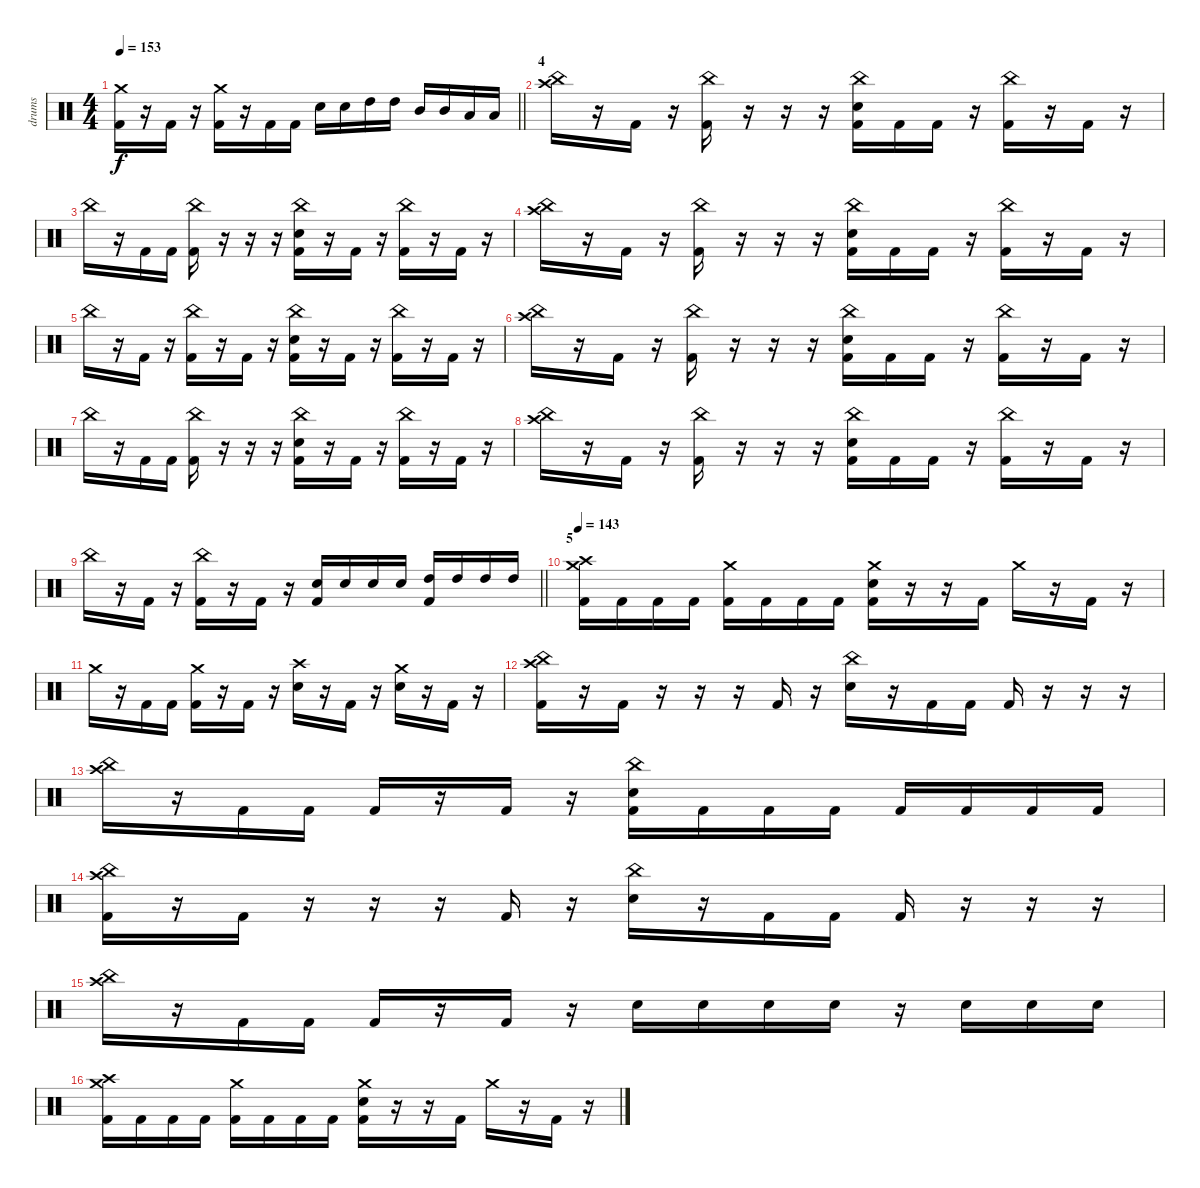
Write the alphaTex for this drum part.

\track ("drums" "drums") {instrument percussion}
\staff {score}
\articulation defaults
\ts (4 4)
\tempo 153
\clef neutral
\barLineRight lightlight
\ks c
("Crash medium (hit)" "Kick (hit) 2").16{dy f} r.16 "Kick (hit) 2".16 r.16 ("Crash medium (hit)" "Kick (hit) 2").16 r.16 "Kick (hit) 2".16 "Kick (hit) 2".16 "Electric Snare (hit)".16 "Electric Snare (hit)".16 "High Tom (hit)".16 "High Tom (hit)".16 "Mid Tom (hit)".16 "Mid Tom (hit)".16 "Low Floor Tom (hit)".16 "Low Floor Tom (hit)".16 |
\section ("" "4")
("China (hit)" "Crash high (hit)").16 r.16 "Kick (hit) 2".16 r.16 ("China (hit)" "Kick (hit) 2").16 r.16 r.16 r.16 ("China (hit)" "Electric Snare (hit)" "Kick (hit) 2").16 "Kick (hit) 2".16 "Kick (hit) 2".16 r.16 ("China (hit)" "Kick (hit) 2").16 r.16 "Kick (hit) 2".16 r.16 |
"China (hit)".16 r.16 "Kick (hit) 2".16 "Kick (hit) 2".16 ("China (hit)" "Kick (hit) 2").16 r.16 r.16 r.16 ("China (hit)" "Electric Snare (hit)" "Kick (hit) 2").16 r.16 "Kick (hit) 2".16 r.16 ("China (hit)" "Kick (hit) 2").16 r.16 "Kick (hit) 2".16 r.16 |
("China (hit)" "Crash high (hit)").16 r.16 "Kick (hit) 2".16 r.16 ("China (hit)" "Kick (hit) 2").16 r.16 r.16 r.16 ("China (hit)" "Electric Snare (hit)" "Kick (hit) 2").16 "Kick (hit) 2".16 "Kick (hit) 2".16 r.16 ("China (hit)" "Kick (hit) 2").16 r.16 "Kick (hit) 2".16 r.16 |
"China (hit)".16 r.16 "Kick (hit) 2".16 r.16 ("China (hit)" "Kick (hit) 2").16 r.16 "Kick (hit) 2".16 r.16 ("China (hit)" "Electric Snare (hit)" "Kick (hit) 2").16 r.16 "Kick (hit) 2".16 r.16 ("China (hit)" "Kick (hit) 2").16 r.16 "Kick (hit) 2".16 r.16 |
("China (hit)" "Crash high (hit)").16 r.16 "Kick (hit) 2".16 r.16 ("China (hit)" "Kick (hit) 2").16 r.16 r.16 r.16 ("China (hit)" "Electric Snare (hit)" "Kick (hit) 2").16 "Kick (hit) 2".16 "Kick (hit) 2".16 r.16 ("China (hit)" "Kick (hit) 2").16 r.16 "Kick (hit) 2".16 r.16 |
"China (hit)".16 r.16 "Kick (hit) 2".16 "Kick (hit) 2".16 ("China (hit)" "Kick (hit) 2").16 r.16 r.16 r.16 ("China (hit)" "Electric Snare (hit)" "Kick (hit) 2").16 r.16 "Kick (hit) 2".16 r.16 ("China (hit)" "Kick (hit) 2").16 r.16 "Kick (hit) 2".16 r.16 |
("China (hit)" "Crash high (hit)").16 r.16 "Kick (hit) 2".16 r.16 ("China (hit)" "Kick (hit) 2").16 r.16 r.16 r.16 ("China (hit)" "Electric Snare (hit)" "Kick (hit) 2").16 "Kick (hit) 2".16 "Kick (hit) 2".16 r.16 ("China (hit)" "Kick (hit) 2").16 r.16 "Kick (hit) 2".16 r.16 |
\barLineRight lightlight "China (hit)".16
r.16 "Kick (hit) 2".16 r.16 ("China (hit)" "Kick (hit) 2").16 r.16 "Kick (hit) 2".16 r.16 ("Electric Snare (hit)" "Kick (hit) 2").16 "Electric Snare (hit)".16 "Electric Snare (hit)".16 "Electric Snare (hit)".16 ("High Tom (hit)" "Kick (hit) 2").16 "High Tom (hit)".16 "High Tom (hit)".16 "High Tom (hit)".16 |
\section ("" "5")
\tempo 143
("Crash medium (hit)" "Crash high (hit)" "Kick (hit) 2").16 "Kick (hit) 2".16 "Kick (hit) 2".16 "Kick (hit) 2".16 ("Crash medium (hit)" "Kick (hit) 2").16 "Kick (hit) 2".16 "Kick (hit) 2".16 "Kick (hit) 2".16 ("Crash medium (hit)" "Electric Snare (hit)" "Kick (hit) 2").16 r.16 r.16 "Kick (hit) 2".16 "Crash medium (hit)".16 r.16 "Kick (hit) 2".16 r.16 |
"Crash medium (hit)".16 r.16 "Kick (hit) 2".16 "Kick (hit) 2".16 ("Crash medium (hit)" "Kick (hit) 2").16 r.16 "Kick (hit) 2".16 r.16 ("Crash high (hit)" "Electric Snare (hit)").16 r.16 "Kick (hit) 2".16 r.16 ("Crash medium (hit)" "Electric Snare (hit)").16 r.16 "Kick (hit) 2".16 r.16 |
("China (hit)" "Crash high (hit)" "Kick (hit) 2").16 r.16 "Kick (hit) 2".16 r.16 r.16 r.16 "Kick (hit) 2".16 r.16 ("China (hit)" "Electric Snare (hit)").16 r.16 "Kick (hit) 2".16 "Kick (hit) 2".16 "Kick (hit) 2".16 r.16 r.16 r.16 |
("China (hit)" "Crash high (hit)").16 r.16 "Kick (hit) 2".16 "Kick (hit) 2".16 "Kick (hit) 2".16 r.16 "Kick (hit) 2".16 r.16 ("China (hit)" "Electric Snare (hit)" "Kick (hit) 2").16 "Kick (hit) 2".16 "Kick (hit) 2".16 "Kick (hit) 2".16 "Kick (hit) 2".16 "Kick (hit) 2".16 "Kick (hit) 2".16 "Kick (hit) 2".16 |
("China (hit)" "Crash high (hit)" "Kick (hit) 2").16 r.16 "Kick (hit) 2".16 r.16 r.16 r.16 "Kick (hit) 2".16 r.16 ("China (hit)" "Electric Snare (hit)").16 r.16 "Kick (hit) 2".16 "Kick (hit) 2".16 "Kick (hit) 2".16 r.16 r.16 r.16 |
("China (hit)" "Crash high (hit)").16 r.16 "Kick (hit) 2".16 "Kick (hit) 2".16 "Kick (hit) 2".16 r.16 "Kick (hit) 2".16 r.16 "Electric Snare (hit)".16 "Electric Snare (hit)".16 "Electric Snare (hit)".16 "Electric Snare (hit)".16 r.16 "Electric Snare (hit)".16 "Electric Snare (hit)".16 "Electric Snare (hit)".16 |
("Crash medium (hit)" "Crash high (hit)" "Kick (hit) 2").16 "Kick (hit) 2".16 "Kick (hit) 2".16 "Kick (hit) 2".16 ("Crash medium (hit)" "Kick (hit) 2").16 "Kick (hit) 2".16 "Kick (hit) 2".16 "Kick (hit) 2".16 ("Crash medium (hit)" "Electric Snare (hit)" "Kick (hit) 2").16 r.16 r.16 "Kick (hit) 2".16 "Crash medium (hit)".16 r.16 "Kick (hit) 2".16 r.16
